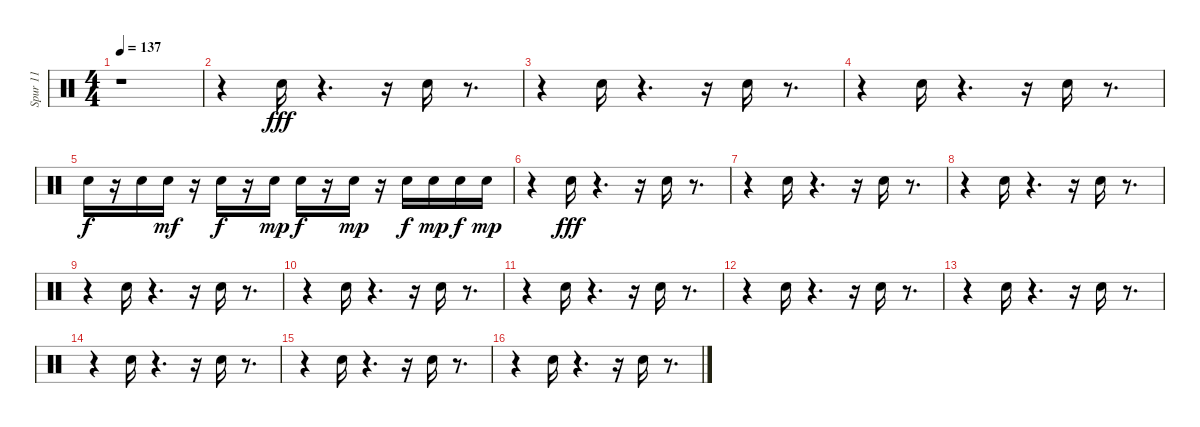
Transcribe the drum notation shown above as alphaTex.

\track ("Spur 11" "Spur 11") {instrument percussion}
\staff {score}
\articulation defaults
\ts (4 4)
\tempo 137
\clef neutral
\ks c
r.1{dy fff} |
r.4 "Snare (hit) 2".16 r.4{d} r.16 "Snare (hit) 2".16 r.8{d} |
r.4 "Snare (hit) 2".16 r.4{d} r.16 "Snare (hit) 2".16 r.8{d} |
r.4 "Snare (hit) 2".16 r.4{d} r.16 "Snare (hit) 2".16 r.8{d} |
"Electric Snare (hit)".16{dy f} r.16 "Electric Snare (hit)".16 "Electric Snare (hit)".16{dy mf} r.16 "Electric Snare (hit)".16{dy f} r.16 "Electric Snare (hit)".16{dy mp} "Electric Snare (hit)".16{dy f} r.16 "Electric Snare (hit)".16{dy mp} r.16 "Electric Snare (hit)".16{dy f} "Electric Snare (hit)".16{dy mp} "Electric Snare (hit)".16{dy f} "Electric Snare (hit)".16{dy mp} |
r.4 "Snare (hit) 2".16{dy fff} r.4{d} r.16 "Snare (hit) 2".16 r.8{d} |
r.4 "Snare (hit) 2".16 r.4{d} r.16 "Snare (hit) 2".16 r.8{d} |
r.4 "Snare (hit) 2".16 r.4{d} r.16 "Snare (hit) 2".16 r.8{d} |
r.4 "Snare (hit) 2".16 r.4{d} r.16 "Snare (hit) 2".16 r.8{d} |
r.4 "Snare (hit) 2".16 r.4{d} r.16 "Snare (hit) 2".16 r.8{d} |
r.4 "Snare (hit) 2".16 r.4{d} r.16 "Snare (hit) 2".16 r.8{d} |
r.4 "Snare (hit) 2".16 r.4{d} r.16 "Snare (hit) 2".16 r.8{d} |
r.4 "Snare (hit) 2".16 r.4{d} r.16 "Snare (hit) 2".16 r.8{d} |
r.4 "Snare (hit) 2".16 r.4{d} r.16 "Snare (hit) 2".16 r.8{d} |
r.4 "Snare (hit) 2".16 r.4{d} r.16 "Snare (hit) 2".16 r.8{d} |
r.4 "Snare (hit) 2".16 r.4{d} r.16 "Snare (hit) 2".16 r.8{d}
